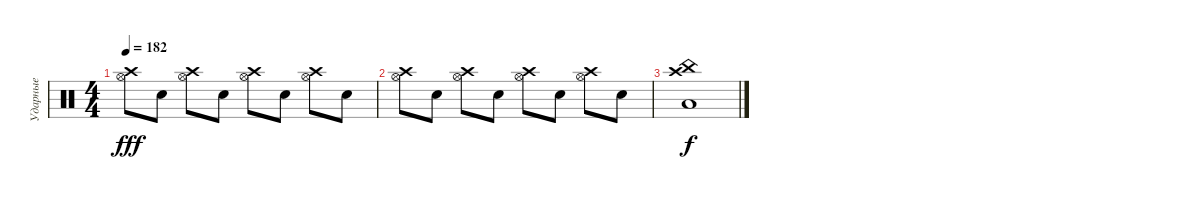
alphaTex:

\track ("Ударные" "Ударные") {instrument percussion}
\staff {score}
\articulation defaults
\ts (4 4)
\tempo 182
\clef neutral
\ks c
("Crash high (hit)" "Hi-Hat (open)").8{dy fff} "Electric Snare (hit)".8 ("Crash high (hit)" "Hi-Hat (open)").8 "Electric Snare (hit)".8 ("Crash high (hit)" "Hi-Hat (open)").8 "Electric Snare (hit)".8 ("Crash high (hit)" "Hi-Hat (open)").8 "Electric Snare (hit)".8 |
("Crash high (hit)" "Hi-Hat (open)").8 "Electric Snare (hit)".8 ("Crash high (hit)" "Hi-Hat (open)").8 "Electric Snare (hit)".8 ("Crash high (hit)" "Hi-Hat (open)").8 "Electric Snare (hit)".8 ("Crash high (hit)" "Hi-Hat (open)").8 "Electric Snare (hit)".8 |
("China (hit)" "Low Floor Tom (hit)" "Crash high (hit)").1{dy f}
